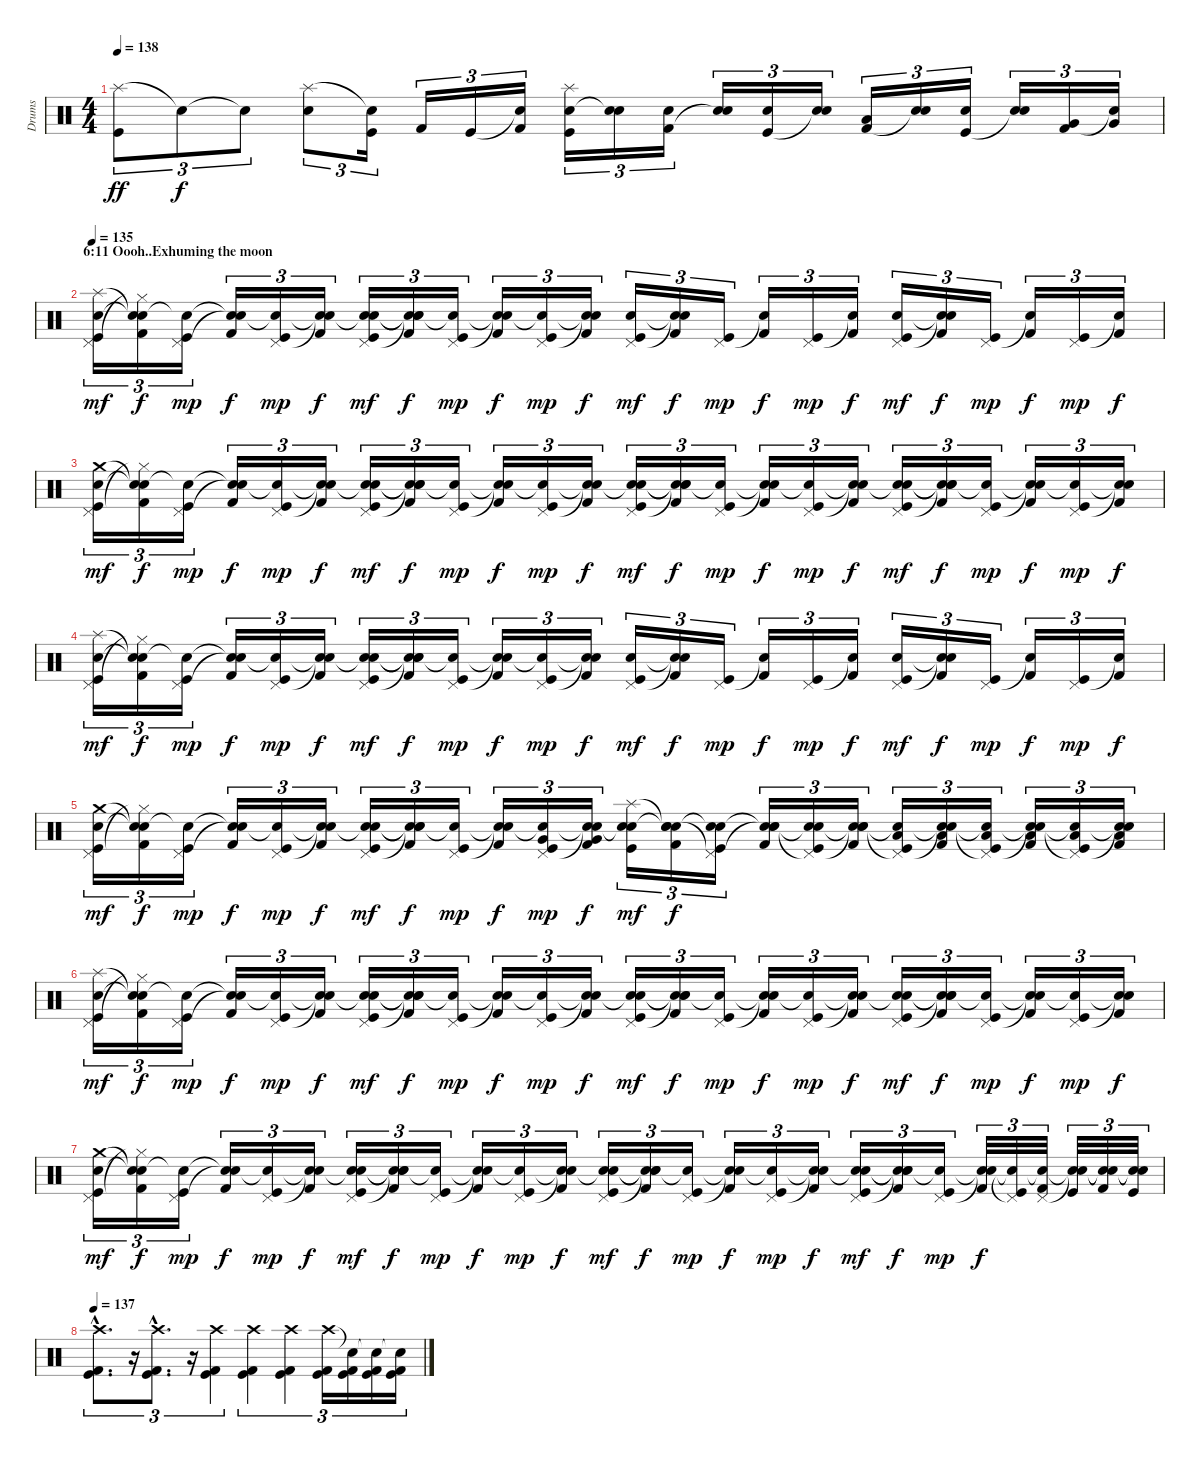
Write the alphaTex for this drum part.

\track ("Drums" "Drums") {instrument percussion}
\staff {score}
\articulation defaults
\ts (4 4)
\tempo 138
\clef neutral
\ks c
("Splash (hit)" "Kick (hit)").8{tu (3 2) dy ff} "Snare (hit)"{t}.8{tu (3 2) dy f} "Snare (hit)"{t}.8{tu (3 2)} ("Splash (hit)" "Snare (hit) 2").8{tu (3 2)} ("Snare (hit)"{t} "Kick (hit)").16{tu (3 2)} "Kick (hit) 2".16{tu (3 2)} "Kick (hit)".16{tu (3 2)} ("Snare (hit)"{t} "Kick (hit) 2").16{tu (3 2)} ("Splash (hit)" "Snare (hit) 2" "Kick (hit)").16{tu (3 2)} ("Snare (hit) 2" "Snare (hit)"{t}).16{tu (3 2)} ("Snare (hit) 2" "Kick (hit) 2").16{tu (3 2)} ("Snare (hit) 2" "Snare (hit)"{t}).16{tu (3 2)} ("Snare (hit) 2" "Kick (hit)").16{tu (3 2)} ("Snare (hit) 2" "Snare (hit)"{t}).16{tu (3 2)} ("Low Tom (hit)" "Kick (hit) 2").16{tu (3 2)} ("Snare (hit) 2" "Snare (hit)"{t}).16{tu (3 2)} ("Snare (hit) 2" "Kick (hit)").16{tu (3 2)} ("Snare (hit) 2" "Snare (hit)"{t}).16{tu (3 2)} ("Very Low Tom (hit)" "Kick (hit) 2").16{tu (3 2)} ("Very Low Tom (hit)" "Snare (hit)"{t}).16{tu (3 2)} |
\section ("" "6:11 Oooh..Exhuming the moon")
\tempo 135
("Splash (hit)" "Pedal Hi-Hat (hit)" "Snare (hit) 2" "Kick (hit)").16{tu (3 2) dy mf} ("Snare (hit)"{t} "Hi-Hat (closed)"{t} "Snare (hit)"{t} "Kick (hit) 2").16{tu (3 2) dy f} ("Snare (hit)"{t} "Pedal Hi-Hat (hit)" "Kick (hit)").16{tu (3 2) dy mp} ("Snare (hit)"{t} "Snare (hit)"{t} "Kick (hit) 2").16{tu (3 2) dy f} ("Snare (hit)"{t} "Pedal Hi-Hat (hit)" "Kick (hit)").16{tu (3 2) dy mp} ("Snare (hit)"{t} "Snare (hit)"{t} "Kick (hit) 2").16{tu (3 2) dy f} ("Snare (hit)"{t} "Pedal Hi-Hat (hit)" "Snare (hit) 2" "Kick (hit)").16{tu (3 2) dy mf} ("Snare (hit)"{t} "Snare (hit)"{t} "Snare (hit)"{t} "Kick (hit) 2").16{tu (3 2) dy f} ("Snare (hit)"{t} "Pedal Hi-Hat (hit)" "Kick (hit)").16{tu (3 2) dy mp} ("Snare (hit)"{t} "Snare (hit)"{t} "Kick (hit) 2").16{tu (3 2) dy f} ("Snare (hit)"{t} "Pedal Hi-Hat (hit)" "Kick (hit)").16{tu (3 2) dy mp} ("Snare (hit)"{t} "Snare (hit)"{t} "Kick (hit) 2").16{tu (3 2) dy f} ("Pedal Hi-Hat (hit)" "Snare (hit) 2" "Kick (hit)").16{tu (3 2) dy mf} ("Snare (hit)"{t} "Snare (hit)"{t} "Kick (hit) 2").16{tu (3 2) dy f} ("Pedal Hi-Hat (hit)" "Kick (hit)").16{tu (3 2) dy mp} ("Snare (hit)"{t} "Kick (hit) 2").16{tu (3 2) dy f} ("Pedal Hi-Hat (hit)" "Kick (hit)").16{tu (3 2) dy mp} ("Snare (hit)"{t} "Kick (hit) 2").16{tu (3 2) dy f} ("Pedal Hi-Hat (hit)" "Snare (hit) 2" "Kick (hit)").16{tu (3 2) dy mf} ("Snare (hit)"{t} "Snare (hit)"{t} "Kick (hit) 2").16{tu (3 2) dy f} ("Pedal Hi-Hat (hit)" "Kick (hit)").16{tu (3 2) dy mp} ("Snare (hit)"{t} "Kick (hit) 2").16{tu (3 2) dy f} ("Pedal Hi-Hat (hit)" "Kick (hit)").16{tu (3 2) dy mp} ("Snare (hit)"{t} "Kick (hit) 2").16{tu (3 2) dy f} |
("Crash medium (hit)" "Pedal Hi-Hat (hit)" "Snare (hit) 2" "Kick (hit)").16{tu (3 2) dy mf} ("Snare (hit)"{t} "Hi-Hat (closed)"{t} "Snare (hit)"{t} "Kick (hit) 2").16{tu (3 2) dy f} ("Snare (hit)"{t} "Pedal Hi-Hat (hit)" "Kick (hit)").16{tu (3 2) dy mp} ("Snare (hit)"{t} "Snare (hit)"{t} "Kick (hit) 2").16{tu (3 2) dy f} ("Snare (hit)"{t} "Pedal Hi-Hat (hit)" "Kick (hit)").16{tu (3 2) dy mp} ("Snare (hit)"{t} "Snare (hit)"{t} "Kick (hit) 2").16{tu (3 2) dy f} ("Snare (hit)"{t} "Pedal Hi-Hat (hit)" "Snare (hit) 2" "Kick (hit)").16{tu (3 2) dy mf} ("Snare (hit)"{t} "Snare (hit)"{t} "Snare (hit)"{t} "Kick (hit) 2").16{tu (3 2) dy f} ("Snare (hit)"{t} "Pedal Hi-Hat (hit)" "Kick (hit)").16{tu (3 2) dy mp} ("Snare (hit)"{t} "Snare (hit)"{t} "Kick (hit) 2").16{tu (3 2) dy f} ("Snare (hit)"{t} "Pedal Hi-Hat (hit)" "Kick (hit)").16{tu (3 2) dy mp} ("Snare (hit)"{t} "Snare (hit)"{t} "Kick (hit) 2").16{tu (3 2) dy f} ("Snare (hit)"{t} "Pedal Hi-Hat (hit)" "Snare (hit) 2" "Kick (hit)").16{tu (3 2) dy mf} ("Snare (hit)"{t} "Snare (hit)"{t} "Snare (hit)"{t} "Kick (hit) 2").16{tu (3 2) dy f} ("Snare (hit)"{t} "Pedal Hi-Hat (hit)" "Kick (hit)").16{tu (3 2) dy mp} ("Snare (hit)"{t} "Snare (hit)"{t} "Kick (hit) 2").16{tu (3 2) dy f} ("Snare (hit)"{t} "Pedal Hi-Hat (hit)" "Kick (hit)").16{tu (3 2) dy mp} ("Snare (hit)"{t} "Snare (hit)"{t} "Kick (hit) 2").16{tu (3 2) dy f} ("Snare (hit)"{t} "Pedal Hi-Hat (hit)" "Snare (hit) 2" "Kick (hit)").16{tu (3 2) dy mf} ("Snare (hit)"{t} "Snare (hit)"{t} "Snare (hit)"{t} "Kick (hit) 2").16{tu (3 2) dy f} ("Snare (hit)"{t} "Pedal Hi-Hat (hit)" "Kick (hit)").16{tu (3 2) dy mp} ("Snare (hit)"{t} "Snare (hit)"{t} "Kick (hit) 2").16{tu (3 2) dy f} ("Snare (hit)"{t} "Pedal Hi-Hat (hit)" "Kick (hit)").16{tu (3 2) dy mp} ("Snare (hit)"{t} "Snare (hit)"{t} "Kick (hit) 2").16{tu (3 2) dy f} |
("Splash (hit)" "Pedal Hi-Hat (hit)" "Snare (hit) 2" "Kick (hit)").16{tu (3 2) dy mf} ("Snare (hit)"{t} "Hi-Hat (closed)"{t} "Snare (hit)"{t} "Kick (hit) 2").16{tu (3 2) dy f} ("Snare (hit)"{t} "Pedal Hi-Hat (hit)" "Kick (hit)").16{tu (3 2) dy mp} ("Snare (hit)"{t} "Snare (hit)"{t} "Kick (hit) 2").16{tu (3 2) dy f} ("Snare (hit)"{t} "Pedal Hi-Hat (hit)" "Kick (hit)").16{tu (3 2) dy mp} ("Snare (hit)"{t} "Snare (hit)"{t} "Kick (hit) 2").16{tu (3 2) dy f} ("Snare (hit)"{t} "Pedal Hi-Hat (hit)" "Snare (hit) 2" "Kick (hit)").16{tu (3 2) dy mf} ("Snare (hit)"{t} "Snare (hit)"{t} "Snare (hit)"{t} "Kick (hit) 2").16{tu (3 2) dy f} ("Snare (hit)"{t} "Pedal Hi-Hat (hit)" "Kick (hit)").16{tu (3 2) dy mp} ("Snare (hit)"{t} "Snare (hit)"{t} "Kick (hit) 2").16{tu (3 2) dy f} ("Snare (hit)"{t} "Pedal Hi-Hat (hit)" "Kick (hit)").16{tu (3 2) dy mp} ("Snare (hit)"{t} "Snare (hit)"{t} "Kick (hit) 2").16{tu (3 2) dy f} ("Pedal Hi-Hat (hit)" "Snare (hit) 2" "Kick (hit)").16{tu (3 2) dy mf} ("Snare (hit)"{t} "Snare (hit)"{t} "Kick (hit) 2").16{tu (3 2) dy f} ("Pedal Hi-Hat (hit)" "Kick (hit)").16{tu (3 2) dy mp} ("Snare (hit)"{t} "Kick (hit) 2").16{tu (3 2) dy f} ("Pedal Hi-Hat (hit)" "Kick (hit)").16{tu (3 2) dy mp} ("Snare (hit)"{t} "Kick (hit) 2").16{tu (3 2) dy f} ("Pedal Hi-Hat (hit)" "Snare (hit) 2" "Kick (hit)").16{tu (3 2) dy mf} ("Snare (hit)"{t} "Snare (hit)"{t} "Kick (hit) 2").16{tu (3 2) dy f} ("Pedal Hi-Hat (hit)" "Kick (hit)").16{tu (3 2) dy mp} ("Snare (hit)"{t} "Kick (hit) 2").16{tu (3 2) dy f} ("Pedal Hi-Hat (hit)" "Kick (hit)").16{tu (3 2) dy mp} ("Snare (hit)"{t} "Kick (hit) 2").16{tu (3 2) dy f} |
("Crash medium (hit)" "Pedal Hi-Hat (hit)" "Snare (hit) 2" "Kick (hit)").16{tu (3 2) dy mf} ("Snare (hit)"{t} "Hi-Hat (closed)"{t} "Snare (hit)"{t} "Kick (hit) 2").16{tu (3 2) dy f} ("Snare (hit)"{t} "Pedal Hi-Hat (hit)" "Kick (hit)").16{tu (3 2) dy mp} ("Snare (hit)"{t} "Snare (hit)"{t} "Kick (hit) 2").16{tu (3 2) dy f} ("Snare (hit)"{t} "Pedal Hi-Hat (hit)" "Kick (hit)").16{tu (3 2) dy mp} ("Snare (hit)"{t} "Snare (hit)"{t} "Kick (hit) 2").16{tu (3 2) dy f} ("Snare (hit)"{t} "Pedal Hi-Hat (hit)" "Snare (hit) 2" "Kick (hit)").16{tu (3 2) dy mf} ("Snare (hit)"{t} "Snare (hit)"{t} "Snare (hit)"{t} "Kick (hit) 2").16{tu (3 2) dy f} ("Snare (hit)"{t} "Pedal Hi-Hat (hit)" "Kick (hit)").16{tu (3 2) dy mp} ("Snare (hit)"{t} "Snare (hit)"{t} "Kick (hit) 2").16{tu (3 2) dy f} ("Snare (hit)"{t} "Pedal Hi-Hat (hit)" "Very Low Tom (hit)" "Kick (hit)").16{tu (3 2) dy mp} ("Snare (hit)"{t} "Snare (hit)"{t} "Very Low Tom (hit)" "Kick (hit) 2").16{tu (3 2) dy f} ("Snare (hit)"{t} "Splash (hit)" "Snare (hit) 2" "Kick (hit)").16{tu (3 2) dy mf} ("Snare (hit)"{t} "Snare (hit)"{t} "Snare (hit) 2" "Kick (hit) 2").16{tu (3 2) dy f} ("Snare (hit)"{t} "Pedal Hi-Hat (hit)"{t} "Snare (hit) 2" "Kick (hit)").16{tu (3 2)} ("Snare (hit)"{t} "Snare (hit)"{t} "Snare (hit) 2" "Kick (hit) 2").16{tu (3 2)} ("Snare (hit)"{t} "Pedal Hi-Hat (hit)"{t} "Snare (hit) 2" "Kick (hit)").16{tu (3 2)} ("Snare (hit)"{t} "Snare (hit)"{t} "Snare (hit) 2" "Kick (hit) 2").16{tu (3 2)} ("Snare (hit)"{t} "Pedal Hi-Hat (hit)"{t} "Low Floor Tom (hit)" "Kick (hit)").16{tu (3 2)} ("Snare (hit)"{t} "Snare (hit)"{t} "Low Floor Tom (hit)" "Kick (hit) 2").16{tu (3 2)} ("Snare (hit)"{t} "Pedal Hi-Hat (hit)"{t} "Low Floor Tom (hit)" "Kick (hit)").16{tu (3 2)} ("Snare (hit)"{t} "Snare (hit)"{t} "Low Floor Tom (hit)" "Kick (hit) 2").16{tu (3 2)} ("Snare (hit)"{t} "Pedal Hi-Hat (hit)"{t} "Low Floor Tom (hit)" "Kick (hit)").16{tu (3 2)} ("Snare (hit)"{t} "Snare (hit)"{t} "Low Floor Tom (hit)" "Kick (hit) 2").16{tu (3 2)} |
("Splash (hit)" "Pedal Hi-Hat (hit)" "Snare (hit) 2" "Kick (hit)").16{tu (3 2) dy mf} ("Snare (hit)"{t} "Hi-Hat (closed)"{t} "Snare (hit)"{t} "Kick (hit) 2").16{tu (3 2) dy f} ("Snare (hit)"{t} "Pedal Hi-Hat (hit)" "Kick (hit)").16{tu (3 2) dy mp} ("Snare (hit)"{t} "Snare (hit)"{t} "Kick (hit) 2").16{tu (3 2) dy f} ("Snare (hit)"{t} "Pedal Hi-Hat (hit)" "Kick (hit)").16{tu (3 2) dy mp} ("Snare (hit)"{t} "Snare (hit)"{t} "Kick (hit) 2").16{tu (3 2) dy f} ("Snare (hit)"{t} "Pedal Hi-Hat (hit)" "Snare (hit) 2" "Kick (hit)").16{tu (3 2) dy mf} ("Snare (hit)"{t} "Snare (hit)"{t} "Snare (hit)"{t} "Kick (hit) 2").16{tu (3 2) dy f} ("Snare (hit)"{t} "Pedal Hi-Hat (hit)" "Kick (hit)").16{tu (3 2) dy mp} ("Snare (hit)"{t} "Snare (hit)"{t} "Kick (hit) 2").16{tu (3 2) dy f} ("Snare (hit)"{t} "Pedal Hi-Hat (hit)" "Kick (hit)").16{tu (3 2) dy mp} ("Snare (hit)"{t} "Snare (hit)"{t} "Kick (hit) 2").16{tu (3 2) dy f} ("Snare (hit)"{t} "Pedal Hi-Hat (hit)" "Snare (hit) 2" "Kick (hit)").16{tu (3 2) dy mf} ("Snare (hit)"{t} "Snare (hit)"{t} "Snare (hit)"{t} "Kick (hit) 2").16{tu (3 2) dy f} ("Snare (hit)"{t} "Pedal Hi-Hat (hit)" "Kick (hit)").16{tu (3 2) dy mp} ("Snare (hit)"{t} "Snare (hit)"{t} "Kick (hit) 2").16{tu (3 2) dy f} ("Snare (hit)"{t} "Pedal Hi-Hat (hit)" "Kick (hit)").16{tu (3 2) dy mp} ("Snare (hit)"{t} "Snare (hit)"{t} "Kick (hit) 2").16{tu (3 2) dy f} ("Snare (hit)"{t} "Pedal Hi-Hat (hit)" "Snare (hit) 2" "Kick (hit)").16{tu (3 2) dy mf} ("Snare (hit)"{t} "Snare (hit)"{t} "Snare (hit)"{t} "Kick (hit) 2").16{tu (3 2) dy f} ("Snare (hit)"{t} "Pedal Hi-Hat (hit)" "Kick (hit)").16{tu (3 2) dy mp} ("Snare (hit)"{t} "Snare (hit)"{t} "Kick (hit) 2").16{tu (3 2) dy f} ("Snare (hit)"{t} "Pedal Hi-Hat (hit)" "Kick (hit)").16{tu (3 2) dy mp} ("Snare (hit)"{t} "Snare (hit)"{t} "Kick (hit) 2").16{tu (3 2) dy f} |
("Crash medium (hit)" "Pedal Hi-Hat (hit)" "Snare (hit) 2" "Kick (hit)").16{tu (3 2) dy mf} ("Snare (hit)"{t} "Hi-Hat (closed)"{t} "Snare (hit)"{t} "Kick (hit) 2").16{tu (3 2) dy f} ("Snare (hit)"{t} "Pedal Hi-Hat (hit)" "Kick (hit)").16{tu (3 2) dy mp} ("Snare (hit)"{t} "Snare (hit)"{t} "Kick (hit) 2").16{tu (3 2) dy f} ("Snare (hit)"{t} "Pedal Hi-Hat (hit)" "Kick (hit)").16{tu (3 2) dy mp} ("Snare (hit)"{t} "Snare (hit)"{t} "Kick (hit) 2").16{tu (3 2) dy f} ("Snare (hit)"{t} "Pedal Hi-Hat (hit)" "Snare (hit) 2" "Kick (hit)").16{tu (3 2) dy mf} ("Snare (hit)"{t} "Snare (hit)"{t} "Snare (hit)"{t} "Kick (hit) 2").16{tu (3 2) dy f} ("Snare (hit)"{t} "Pedal Hi-Hat (hit)" "Kick (hit)").16{tu (3 2) dy mp} ("Snare (hit)"{t} "Snare (hit)"{t} "Kick (hit) 2").16{tu (3 2) dy f} ("Snare (hit)"{t} "Pedal Hi-Hat (hit)" "Kick (hit)").16{tu (3 2) dy mp} ("Snare (hit)"{t} "Snare (hit)"{t} "Kick (hit) 2").16{tu (3 2) dy f} ("Snare (hit)"{t} "Pedal Hi-Hat (hit)" "Snare (hit) 2" "Kick (hit)").16{tu (3 2) dy mf} ("Snare (hit)"{t} "Snare (hit)"{t} "Snare (hit)"{t} "Kick (hit) 2").16{tu (3 2) dy f} ("Snare (hit)"{t} "Pedal Hi-Hat (hit)" "Kick (hit)").16{tu (3 2) dy mp} ("Snare (hit)"{t} "Snare (hit)"{t} "Kick (hit) 2").16{tu (3 2) dy f} ("Snare (hit)"{t} "Pedal Hi-Hat (hit)" "Kick (hit)").16{tu (3 2) dy mp} ("Snare (hit)"{t} "Snare (hit)"{t} "Kick (hit) 2").16{tu (3 2) dy f} ("Snare (hit)"{t} "Pedal Hi-Hat (hit)" "Snare (hit) 2" "Kick (hit)").16{tu (3 2) dy mf} ("Snare (hit)"{t} "Snare (hit)"{t} "Snare (hit)"{t} "Kick (hit) 2").16{tu (3 2) dy f} ("Snare (hit)"{t} "Pedal Hi-Hat (hit)" "Kick (hit)").16{tu (3 2) dy mp} ("Snare (hit)"{t} "Snare (hit)"{t} "Kick (hit) 2").32{tu (3 2) dy f} ("Snare (hit)"{t} "Pedal Hi-Hat (hit)"{t} "Kick (hit)").32{tu (3 2)} ("Snare (hit)"{t} "Pedal Hi-Hat (hit)" "Kick (hit) 2").32{tu (3 2)} ("Snare (hit)"{t} "Snare (hit)"{t} "Kick (hit)").32{tu (3 2)} ("Snare (hit)"{t} "Snare (hit)"{t} "Kick (hit) 2").32{tu (3 2)} ("Snare (hit)"{t} "Snare (hit)"{t} "Kick (hit)").32{tu (3 2)} |
\tempo 137
("Crash high (hit)"{hac} "Kick (hit) 2"{hac} "Kick (hit)"{hac}).8{d tu (3 2)} r.16{tu (3 2)} ("Crash high (hit)"{hac} "Kick (hit)"{hac} "Kick (hit) 2"{hac}).8{d tu (3 2)} r.16{tu (3 2)} ("Crash high (hit)" "Kick (hit) 2" "Kick (hit)").4{tu (3 2)} ("Crash high (hit)" "Kick (hit)" "Kick (hit) 2").4{tu (3 2)} ("Crash high (hit)" "Kick (hit) 2" "Kick (hit)").4{tu (3 2)} ("Crash high (hit)" "Kick (hit)" "Kick (hit) 2").16{tu (3 2)} ("Snare (hit)"{t} "Kick (hit) 2" "Kick (hit)").16{tu (3 2)} ("Snare (hit)"{t} "Kick (hit)" "Kick (hit) 2").16{tu (3 2)} ("Snare (hit)"{t} "Kick (hit) 2" "Kick (hit)").16{tu (3 2)}
